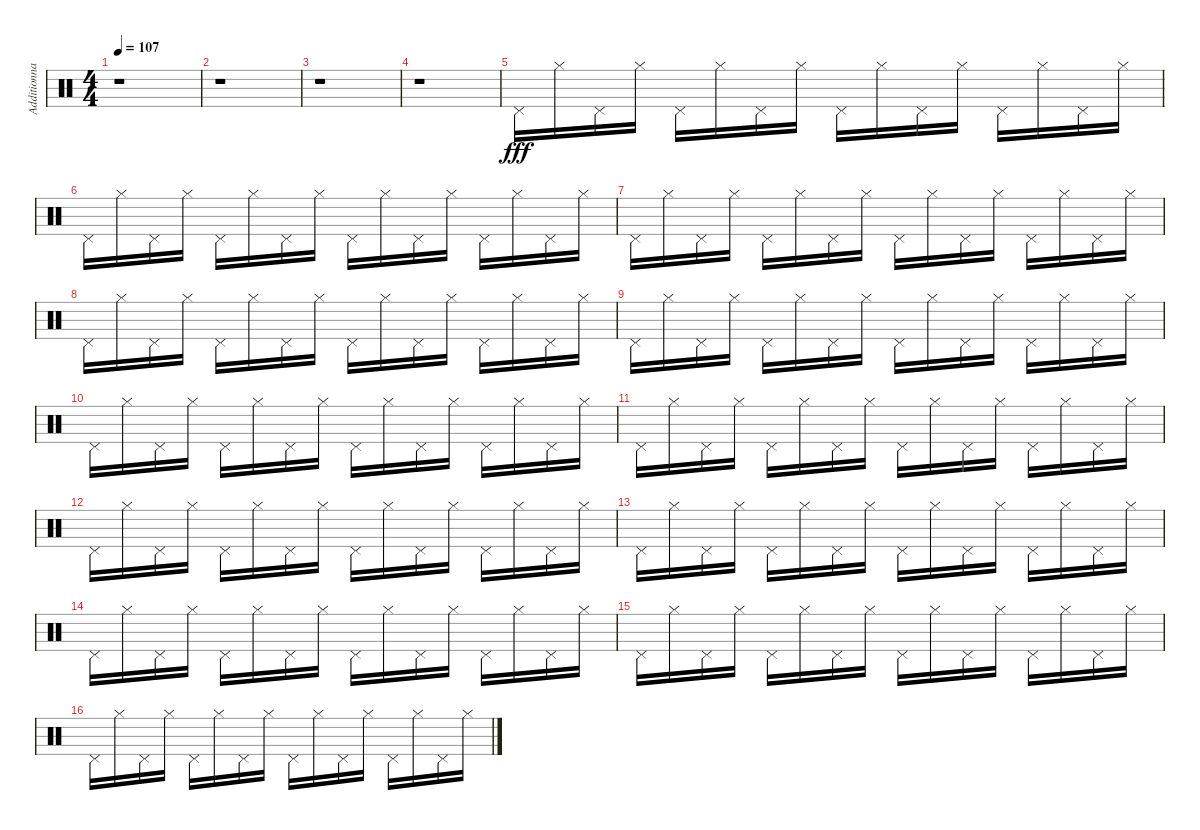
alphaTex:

\track ("Additionnals Symbals" "Additionna") {instrument percussion}
\staff {score}
\articulation defaults
\ts (4 4)
\tempo 107
\clef neutral
\ks c
r.1{dy fff} |
r.1 |
r.1 |
r.1 |
"Pedal Hi-Hat (hit)".16 "Hi-Hat (closed)".16 "Pedal Hi-Hat (hit)".16 "Hi-Hat (closed)".16 "Pedal Hi-Hat (hit)".16 "Hi-Hat (closed)".16 "Pedal Hi-Hat (hit)".16 "Hi-Hat (closed)".16 "Pedal Hi-Hat (hit)".16 "Hi-Hat (closed)".16 "Pedal Hi-Hat (hit)".16 "Hi-Hat (closed)".16 "Pedal Hi-Hat (hit)".16 "Hi-Hat (closed)".16 "Pedal Hi-Hat (hit)".16 "Hi-Hat (closed)".16 |
"Pedal Hi-Hat (hit)".16 "Hi-Hat (closed)".16 "Pedal Hi-Hat (hit)".16 "Hi-Hat (closed)".16 "Pedal Hi-Hat (hit)".16 "Hi-Hat (closed)".16 "Pedal Hi-Hat (hit)".16 "Hi-Hat (closed)".16 "Pedal Hi-Hat (hit)".16 "Hi-Hat (closed)".16 "Pedal Hi-Hat (hit)".16 "Hi-Hat (closed)".16 "Pedal Hi-Hat (hit)".16 "Hi-Hat (closed)".16 "Pedal Hi-Hat (hit)".16 "Hi-Hat (closed)".16 |
"Pedal Hi-Hat (hit)".16 "Hi-Hat (closed)".16 "Pedal Hi-Hat (hit)".16 "Hi-Hat (closed)".16 "Pedal Hi-Hat (hit)".16 "Hi-Hat (closed)".16 "Pedal Hi-Hat (hit)".16 "Hi-Hat (closed)".16 "Pedal Hi-Hat (hit)".16 "Hi-Hat (closed)".16 "Pedal Hi-Hat (hit)".16 "Hi-Hat (closed)".16 "Pedal Hi-Hat (hit)".16 "Hi-Hat (closed)".16 "Pedal Hi-Hat (hit)".16 "Hi-Hat (closed)".16 |
"Pedal Hi-Hat (hit)".16 "Hi-Hat (closed)".16 "Pedal Hi-Hat (hit)".16 "Hi-Hat (closed)".16 "Pedal Hi-Hat (hit)".16 "Hi-Hat (closed)".16 "Pedal Hi-Hat (hit)".16 "Hi-Hat (closed)".16 "Pedal Hi-Hat (hit)".16 "Hi-Hat (closed)".16 "Pedal Hi-Hat (hit)".16 "Hi-Hat (closed)".16 "Pedal Hi-Hat (hit)".16 "Hi-Hat (closed)".16 "Pedal Hi-Hat (hit)".16 "Hi-Hat (closed)".16 |
"Pedal Hi-Hat (hit)".16 "Hi-Hat (closed)".16 "Pedal Hi-Hat (hit)".16 "Hi-Hat (closed)".16 "Pedal Hi-Hat (hit)".16 "Hi-Hat (closed)".16 "Pedal Hi-Hat (hit)".16 "Hi-Hat (closed)".16 "Pedal Hi-Hat (hit)".16 "Hi-Hat (closed)".16 "Pedal Hi-Hat (hit)".16 "Hi-Hat (closed)".16 "Pedal Hi-Hat (hit)".16 "Hi-Hat (closed)".16 "Pedal Hi-Hat (hit)".16 "Hi-Hat (closed)".16 |
"Pedal Hi-Hat (hit)".16 "Hi-Hat (closed)".16 "Pedal Hi-Hat (hit)".16 "Hi-Hat (closed)".16 "Pedal Hi-Hat (hit)".16 "Hi-Hat (closed)".16 "Pedal Hi-Hat (hit)".16 "Hi-Hat (closed)".16 "Pedal Hi-Hat (hit)".16 "Hi-Hat (closed)".16 "Pedal Hi-Hat (hit)".16 "Hi-Hat (closed)".16 "Pedal Hi-Hat (hit)".16 "Hi-Hat (closed)".16 "Pedal Hi-Hat (hit)".16 "Hi-Hat (closed)".16 |
"Pedal Hi-Hat (hit)".16 "Hi-Hat (closed)".16 "Pedal Hi-Hat (hit)".16 "Hi-Hat (closed)".16 "Pedal Hi-Hat (hit)".16 "Hi-Hat (closed)".16 "Pedal Hi-Hat (hit)".16 "Hi-Hat (closed)".16 "Pedal Hi-Hat (hit)".16 "Hi-Hat (closed)".16 "Pedal Hi-Hat (hit)".16 "Hi-Hat (closed)".16 "Pedal Hi-Hat (hit)".16 "Hi-Hat (closed)".16 "Pedal Hi-Hat (hit)".16 "Hi-Hat (closed)".16 |
"Pedal Hi-Hat (hit)".16 "Hi-Hat (closed)".16 "Pedal Hi-Hat (hit)".16 "Hi-Hat (closed)".16 "Pedal Hi-Hat (hit)".16 "Hi-Hat (closed)".16 "Pedal Hi-Hat (hit)".16 "Hi-Hat (closed)".16 "Pedal Hi-Hat (hit)".16 "Hi-Hat (closed)".16 "Pedal Hi-Hat (hit)".16 "Hi-Hat (closed)".16 "Pedal Hi-Hat (hit)".16 "Hi-Hat (closed)".16 "Pedal Hi-Hat (hit)".16 "Hi-Hat (closed)".16 |
"Pedal Hi-Hat (hit)".16 "Hi-Hat (closed)".16 "Pedal Hi-Hat (hit)".16 "Hi-Hat (closed)".16 "Pedal Hi-Hat (hit)".16 "Hi-Hat (closed)".16 "Pedal Hi-Hat (hit)".16 "Hi-Hat (closed)".16 "Pedal Hi-Hat (hit)".16 "Hi-Hat (closed)".16 "Pedal Hi-Hat (hit)".16 "Hi-Hat (closed)".16 "Pedal Hi-Hat (hit)".16 "Hi-Hat (closed)".16 "Pedal Hi-Hat (hit)".16 "Hi-Hat (closed)".16 |
"Pedal Hi-Hat (hit)".16 "Hi-Hat (closed)".16 "Pedal Hi-Hat (hit)".16 "Hi-Hat (closed)".16 "Pedal Hi-Hat (hit)".16 "Hi-Hat (closed)".16 "Pedal Hi-Hat (hit)".16 "Hi-Hat (closed)".16 "Pedal Hi-Hat (hit)".16 "Hi-Hat (closed)".16 "Pedal Hi-Hat (hit)".16 "Hi-Hat (closed)".16 "Pedal Hi-Hat (hit)".16 "Hi-Hat (closed)".16 "Pedal Hi-Hat (hit)".16 "Hi-Hat (closed)".16 |
"Pedal Hi-Hat (hit)".16 "Hi-Hat (closed)".16 "Pedal Hi-Hat (hit)".16 "Hi-Hat (closed)".16 "Pedal Hi-Hat (hit)".16 "Hi-Hat (closed)".16 "Pedal Hi-Hat (hit)".16 "Hi-Hat (closed)".16 "Pedal Hi-Hat (hit)".16 "Hi-Hat (closed)".16 "Pedal Hi-Hat (hit)".16 "Hi-Hat (closed)".16 "Pedal Hi-Hat (hit)".16 "Hi-Hat (closed)".16 "Pedal Hi-Hat (hit)".16 "Hi-Hat (closed)".16 |
"Pedal Hi-Hat (hit)".16 "Hi-Hat (closed)".16 "Pedal Hi-Hat (hit)".16 "Hi-Hat (closed)".16 "Pedal Hi-Hat (hit)".16 "Hi-Hat (closed)".16 "Pedal Hi-Hat (hit)".16 "Hi-Hat (closed)".16 "Pedal Hi-Hat (hit)".16 "Hi-Hat (closed)".16 "Pedal Hi-Hat (hit)".16 "Hi-Hat (closed)".16 "Pedal Hi-Hat (hit)".16 "Hi-Hat (closed)".16 "Pedal Hi-Hat (hit)".16 "Hi-Hat (closed)".16
